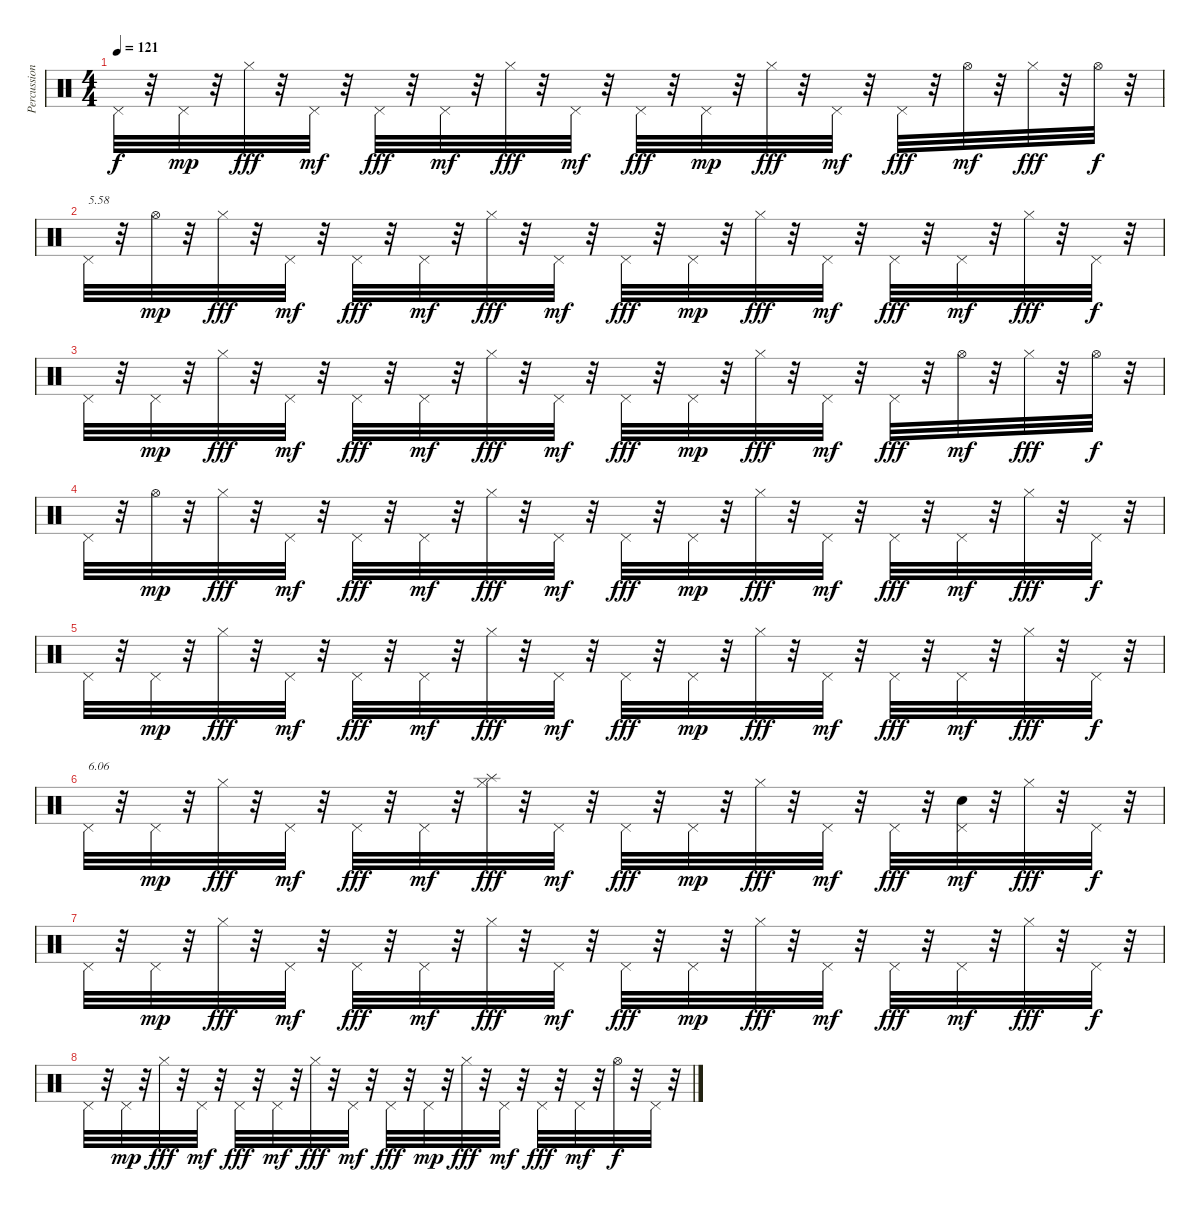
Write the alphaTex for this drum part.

\track ("Percussions" "Percussion") {instrument percussion}
\staff {score}
\articulation defaults
\ts (4 4)
\tempo 121
\clef neutral
\ks c "Pedal Hi-Hat (hit)".32{dy f}
r.32 "Pedal Hi-Hat (hit)".32{dy mp} r.32 "Hi-Hat (closed)".32{dy fff} r.32 "Pedal Hi-Hat (hit)".32{dy mf} r.32 "Pedal Hi-Hat (hit)".32{dy fff} r.32 "Pedal Hi-Hat (hit)".32{dy mf} r.32 "Hi-Hat (closed)".32{dy fff} r.32 "Pedal Hi-Hat (hit)".32{dy mf} r.32 "Pedal Hi-Hat (hit)".32{dy fff} r.32 "Pedal Hi-Hat (hit)".32{dy mp} r.32 "Hi-Hat (closed)".32{dy fff} r.32 "Pedal Hi-Hat (hit)".32{dy mf} r.32 "Pedal Hi-Hat (hit)".32{dy fff} r.32 "Hi-Hat (open)".32{dy mf} r.32 "Hi-Hat (closed)".32{dy fff} r.32 "Hi-Hat (open)".32{dy f} r.32 |
"Pedal Hi-Hat (hit)".32{txt "5.58"} r.32 "Hi-Hat (open)".32{dy mp} r.32 "Hi-Hat (closed)".32{dy fff} r.32 "Pedal Hi-Hat (hit)".32{dy mf} r.32 "Pedal Hi-Hat (hit)".32{dy fff} r.32 "Pedal Hi-Hat (hit)".32{dy mf} r.32 "Hi-Hat (closed)".32{dy fff} r.32 "Pedal Hi-Hat (hit)".32{dy mf} r.32 "Pedal Hi-Hat (hit)".32{dy fff} r.32 "Pedal Hi-Hat (hit)".32{dy mp} r.32 "Hi-Hat (closed)".32{dy fff} r.32 "Pedal Hi-Hat (hit)".32{dy mf} r.32 "Pedal Hi-Hat (hit)".32{dy fff} r.32 "Pedal Hi-Hat (hit)".32{dy mf} r.32 "Hi-Hat (closed)".32{dy fff} r.32 "Pedal Hi-Hat (hit)".32{dy f} r.32 |
"Pedal Hi-Hat (hit)".32 r.32 "Pedal Hi-Hat (hit)".32{dy mp} r.32 "Hi-Hat (closed)".32{dy fff} r.32 "Pedal Hi-Hat (hit)".32{dy mf} r.32 "Pedal Hi-Hat (hit)".32{dy fff} r.32 "Pedal Hi-Hat (hit)".32{dy mf} r.32 "Hi-Hat (closed)".32{dy fff} r.32 "Pedal Hi-Hat (hit)".32{dy mf} r.32 "Pedal Hi-Hat (hit)".32{dy fff} r.32 "Pedal Hi-Hat (hit)".32{dy mp} r.32 "Hi-Hat (closed)".32{dy fff} r.32 "Pedal Hi-Hat (hit)".32{dy mf} r.32 "Pedal Hi-Hat (hit)".32{dy fff} r.32 "Hi-Hat (open)".32{dy mf} r.32 "Hi-Hat (closed)".32{dy fff} r.32 "Hi-Hat (open)".32{dy f} r.32 |
"Pedal Hi-Hat (hit)".32 r.32 "Hi-Hat (open)".32{dy mp} r.32 "Hi-Hat (closed)".32{dy fff} r.32 "Pedal Hi-Hat (hit)".32{dy mf} r.32 "Pedal Hi-Hat (hit)".32{dy fff} r.32 "Pedal Hi-Hat (hit)".32{dy mf} r.32 "Hi-Hat (closed)".32{dy fff} r.32 "Pedal Hi-Hat (hit)".32{dy mf} r.32 "Pedal Hi-Hat (hit)".32{dy fff} r.32 "Pedal Hi-Hat (hit)".32{dy mp} r.32 "Hi-Hat (closed)".32{dy fff} r.32 "Pedal Hi-Hat (hit)".32{dy mf} r.32 "Pedal Hi-Hat (hit)".32{dy fff} r.32 "Pedal Hi-Hat (hit)".32{dy mf} r.32 "Hi-Hat (closed)".32{dy fff} r.32 "Pedal Hi-Hat (hit)".32{dy f} r.32 |
"Pedal Hi-Hat (hit)".32 r.32 "Pedal Hi-Hat (hit)".32{dy mp} r.32 "Hi-Hat (closed)".32{dy fff} r.32 "Pedal Hi-Hat (hit)".32{dy mf} r.32 "Pedal Hi-Hat (hit)".32{dy fff} r.32 "Pedal Hi-Hat (hit)".32{dy mf} r.32 "Hi-Hat (closed)".32{dy fff} r.32 "Pedal Hi-Hat (hit)".32{dy mf} r.32 "Pedal Hi-Hat (hit)".32{dy fff} r.32 "Pedal Hi-Hat (hit)".32{dy mp} r.32 "Hi-Hat (closed)".32{dy fff} r.32 "Pedal Hi-Hat (hit)".32{dy mf} r.32 "Pedal Hi-Hat (hit)".32{dy fff} r.32 "Pedal Hi-Hat (hit)".32{dy mf} r.32 "Hi-Hat (closed)".32{dy fff} r.32 "Pedal Hi-Hat (hit)".32{dy f} r.32 |
"Pedal Hi-Hat (hit)".32{txt "6.06"} r.32 "Pedal Hi-Hat (hit)".32{dy mp} r.32 "Hi-Hat (closed)".32{dy fff} r.32 "Pedal Hi-Hat (hit)".32{dy mf} r.32 "Pedal Hi-Hat (hit)".32{dy fff} r.32 "Pedal Hi-Hat (hit)".32{dy mf} r.32 ("Hi-Hat (closed)" "Splash (hit)").32{dy fff} r.32 "Pedal Hi-Hat (hit)".32{dy mf} r.32 "Pedal Hi-Hat (hit)".32{dy fff} r.32 "Pedal Hi-Hat (hit)".32{dy mp} r.32 "Hi-Hat (closed)".32{dy fff} r.32 "Pedal Hi-Hat (hit)".32{dy mf} r.32 "Pedal Hi-Hat (hit)".32{dy fff} r.32 ("Pedal Hi-Hat (hit)" "Electric Snare (hit)").32{dy mf} r.32 "Hi-Hat (closed)".32{dy fff} r.32 "Pedal Hi-Hat (hit)".32{dy f} r.32 |
"Pedal Hi-Hat (hit)".32 r.32 "Pedal Hi-Hat (hit)".32{dy mp} r.32 "Hi-Hat (closed)".32{dy fff} r.32 "Pedal Hi-Hat (hit)".32{dy mf} r.32 "Pedal Hi-Hat (hit)".32{dy fff} r.32 "Pedal Hi-Hat (hit)".32{dy mf} r.32 "Hi-Hat (closed)".32{dy fff} r.32 "Pedal Hi-Hat (hit)".32{dy mf} r.32 "Pedal Hi-Hat (hit)".32{dy fff} r.32 "Pedal Hi-Hat (hit)".32{dy mp} r.32 "Hi-Hat (closed)".32{dy fff} r.32 "Pedal Hi-Hat (hit)".32{dy mf} r.32 "Pedal Hi-Hat (hit)".32{dy fff} r.32 "Pedal Hi-Hat (hit)".32{dy mf} r.32 "Hi-Hat (closed)".32{dy fff} r.32 "Pedal Hi-Hat (hit)".32{dy f} r.32 |
"Pedal Hi-Hat (hit)".32 r.32 "Pedal Hi-Hat (hit)".32{dy mp} r.32 "Hi-Hat (closed)".32{dy fff} r.32 "Pedal Hi-Hat (hit)".32{dy mf} r.32 "Pedal Hi-Hat (hit)".32{dy fff} r.32 "Pedal Hi-Hat (hit)".32{dy mf} r.32 "Hi-Hat (closed)".32{dy fff} r.32 "Pedal Hi-Hat (hit)".32{dy mf} r.32 "Pedal Hi-Hat (hit)".32{dy fff} r.32 "Pedal Hi-Hat (hit)".32{dy mp} r.32 "Hi-Hat (closed)".32{dy fff} r.32 "Pedal Hi-Hat (hit)".32{dy mf} r.32 "Pedal Hi-Hat (hit)".32{dy fff} r.32 "Pedal Hi-Hat (hit)".32{dy mf} r.32 "Hi-Hat (open)".32{dy f} r.32 "Pedal Hi-Hat (hit)".32 r.32
